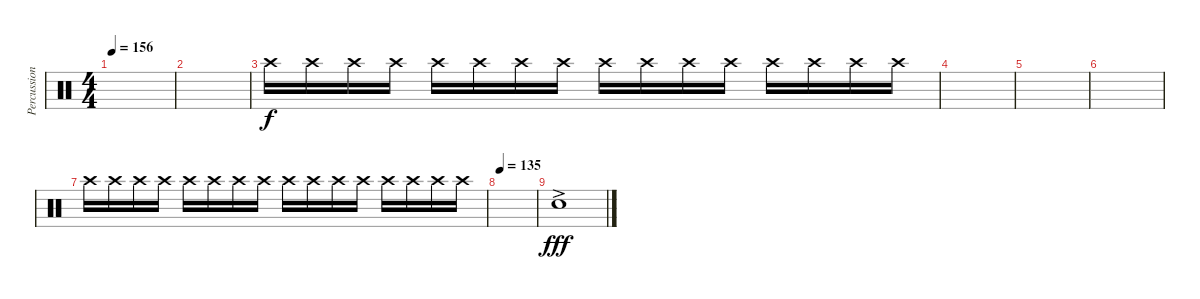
\track ("Percussion" "Percussion") {instrument percussion}
\staff {score}
\articulation defaults
\ts (4 4)
\tempo 156
\clef neutral
\ks c
|
|
"Crash high (hit)".16 "Crash high (hit)".16 "Crash high (hit)".16 "Crash high (hit)".16 "Crash high (hit)".16 "Crash high (hit)".16 "Crash high (hit)".16 "Crash high (hit)".16 "Crash high (hit)".16 "Crash high (hit)".16 "Crash high (hit)".16 "Crash high (hit)".16 "Crash high (hit)".16 "Crash high (hit)".16 "Crash high (hit)".16 "Crash high (hit)".16 |
|
|
|
"Crash high (hit)".16{volume 6} "Crash high (hit)".16 "Crash high (hit)".16 "Crash high (hit)".16 "Crash high (hit)".16 "Crash high (hit)".16 "Crash high (hit)".16 "Crash high (hit)".16 "Crash high (hit)".16 "Crash high (hit)".16 "Crash high (hit)".16 "Crash high (hit)".16 "Crash high (hit)".16 "Crash high (hit)".16 "Crash high (hit)".16 "Crash high (hit)".16 |
\tempo 135
|
"Hand Clap (hit)"{ac}.1{dy fff volume 16}
